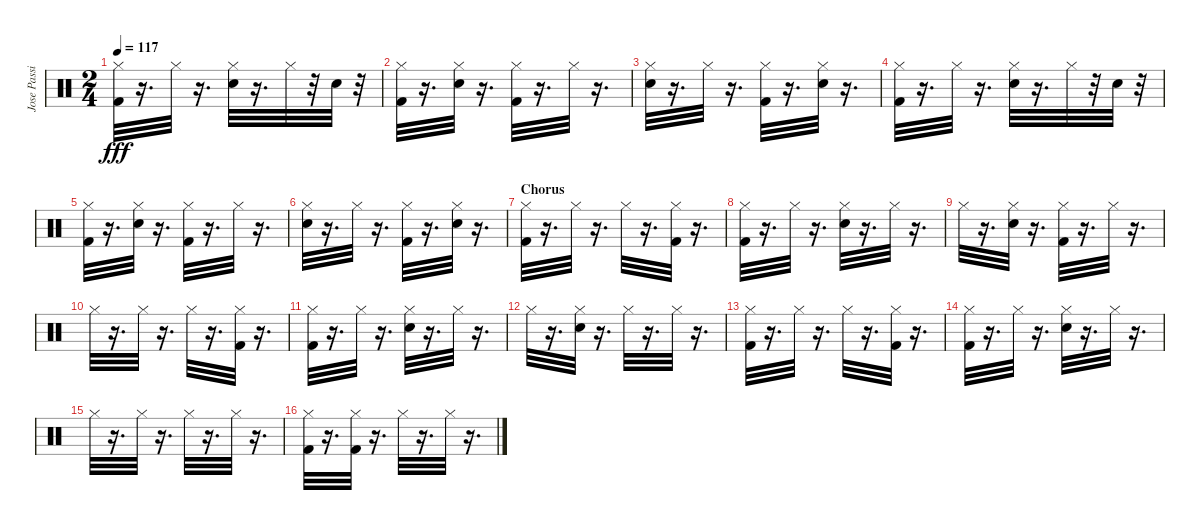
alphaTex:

\track ("Jose Passilas-drums" "Jose Passi") {instrument percussion}
\staff {score}
\articulation defaults
\ts (2 4)
\tempo 117
\clef neutral
\ks c
("Hi-Hat (closed)" "Kick (hit) 2").32{dy fff} r.16{d} "Hi-Hat (closed)".32 r.16{d} ("Electric Snare (hit)" "Hi-Hat (closed)").32 r.16{d} "Hi-Hat (closed)".32 r.32 "Electric Snare (hit)".32 r.32 |
("Hi-Hat (closed)" "Kick (hit) 2").32 r.16{d} ("Electric Snare (hit)" "Hi-Hat (closed)").32 r.16{d} ("Hi-Hat (closed)" "Kick (hit) 2").32 r.16{d} "Hi-Hat (closed)".32 r.16{d} |
("Electric Snare (hit)" "Hi-Hat (closed)").32 r.16{d} "Hi-Hat (closed)".32 r.16{d} ("Hi-Hat (closed)" "Kick (hit) 2").32 r.16{d} ("Electric Snare (hit)" "Hi-Hat (closed)").32 r.16{d} |
("Kick (hit) 2" "Hi-Hat (closed)").32 r.16{d} "Hi-Hat (closed)".32 r.16{d} ("Electric Snare (hit)" "Hi-Hat (closed)").32 r.16{d} "Hi-Hat (closed)".32 r.32 "Electric Snare (hit)".32 r.32 |
("Kick (hit) 2" "Hi-Hat (closed)").32 r.16{d} ("Electric Snare (hit)" "Hi-Hat (closed)").32 r.16{d} ("Kick (hit) 2" "Hi-Hat (closed)").32 r.16{d} "Hi-Hat (closed)".32 r.16{d} |
("Electric Snare (hit)" "Hi-Hat (closed)").32 r.16{d} "Hi-Hat (closed)".32 r.16{d} ("Kick (hit) 2" "Hi-Hat (closed)").32 r.16{d} ("Electric Snare (hit)" "Hi-Hat (closed)").32 r.16{d} |
\section ("" "Chorus")
("Hi-Hat (closed)" "Kick (hit) 2").32 r.16{d} "Hi-Hat (closed)".32 r.16{d} "Hi-Hat (closed)".32 r.16{d} ("Hi-Hat (closed)" "Kick (hit) 2").32 r.16{d} |
("Hi-Hat (closed)" "Kick (hit) 2").32 r.16{d} "Hi-Hat (closed)".32 r.16{d} ("Electric Snare (hit)" "Hi-Hat (closed)").32 r.16{d} "Hi-Hat (closed)".32 r.16{d} |
"Hi-Hat (closed)".32 r.16{d} ("Electric Snare (hit)" "Hi-Hat (closed)").32 r.16{d} ("Hi-Hat (closed)" "Kick (hit) 2").32 r.16{d} "Hi-Hat (closed)".32 r.16{d} |
"Hi-Hat (closed)".32 r.16{d} "Hi-Hat (closed)".32 r.16{d} "Hi-Hat (closed)".32 r.16{d} ("Hi-Hat (closed)" "Kick (hit) 2").32 r.16{d} |
("Hi-Hat (closed)" "Kick (hit) 2").32 r.16{d} "Hi-Hat (closed)".32 r.16{d} ("Electric Snare (hit)" "Hi-Hat (closed)").32 r.16{d} "Hi-Hat (closed)".32 r.16{d} |
"Hi-Hat (closed)".32 r.16{d} ("Electric Snare (hit)" "Hi-Hat (closed)").32 r.16{d} "Hi-Hat (closed)".32 r.16{d} "Hi-Hat (closed)".32 r.16{d} |
("Hi-Hat (closed)" "Kick (hit) 2").32 r.16{d} "Hi-Hat (closed)".32 r.16{d} "Hi-Hat (closed)".32 r.16{d} ("Hi-Hat (closed)" "Kick (hit) 2").32 r.16{d} |
("Hi-Hat (closed)" "Kick (hit) 2").32 r.16{d} "Hi-Hat (closed)".32 r.16{d} ("Electric Snare (hit)" "Hi-Hat (closed)").32 r.16{d} "Hi-Hat (closed)".32 r.16{d} |
"Hi-Hat (closed)".32 r.16{d} "Hi-Hat (closed)".32 r.16{d} "Hi-Hat (closed)".32 r.16{d} "Hi-Hat (closed)".32 r.16{d} |
("Hi-Hat (closed)" "Kick (hit) 2").32 r.16{d} ("Hi-Hat (closed)" "Kick (hit) 2").32 r.16{d} "Hi-Hat (closed)".32 r.16{d} "Hi-Hat (closed)".32 r.16{d}
